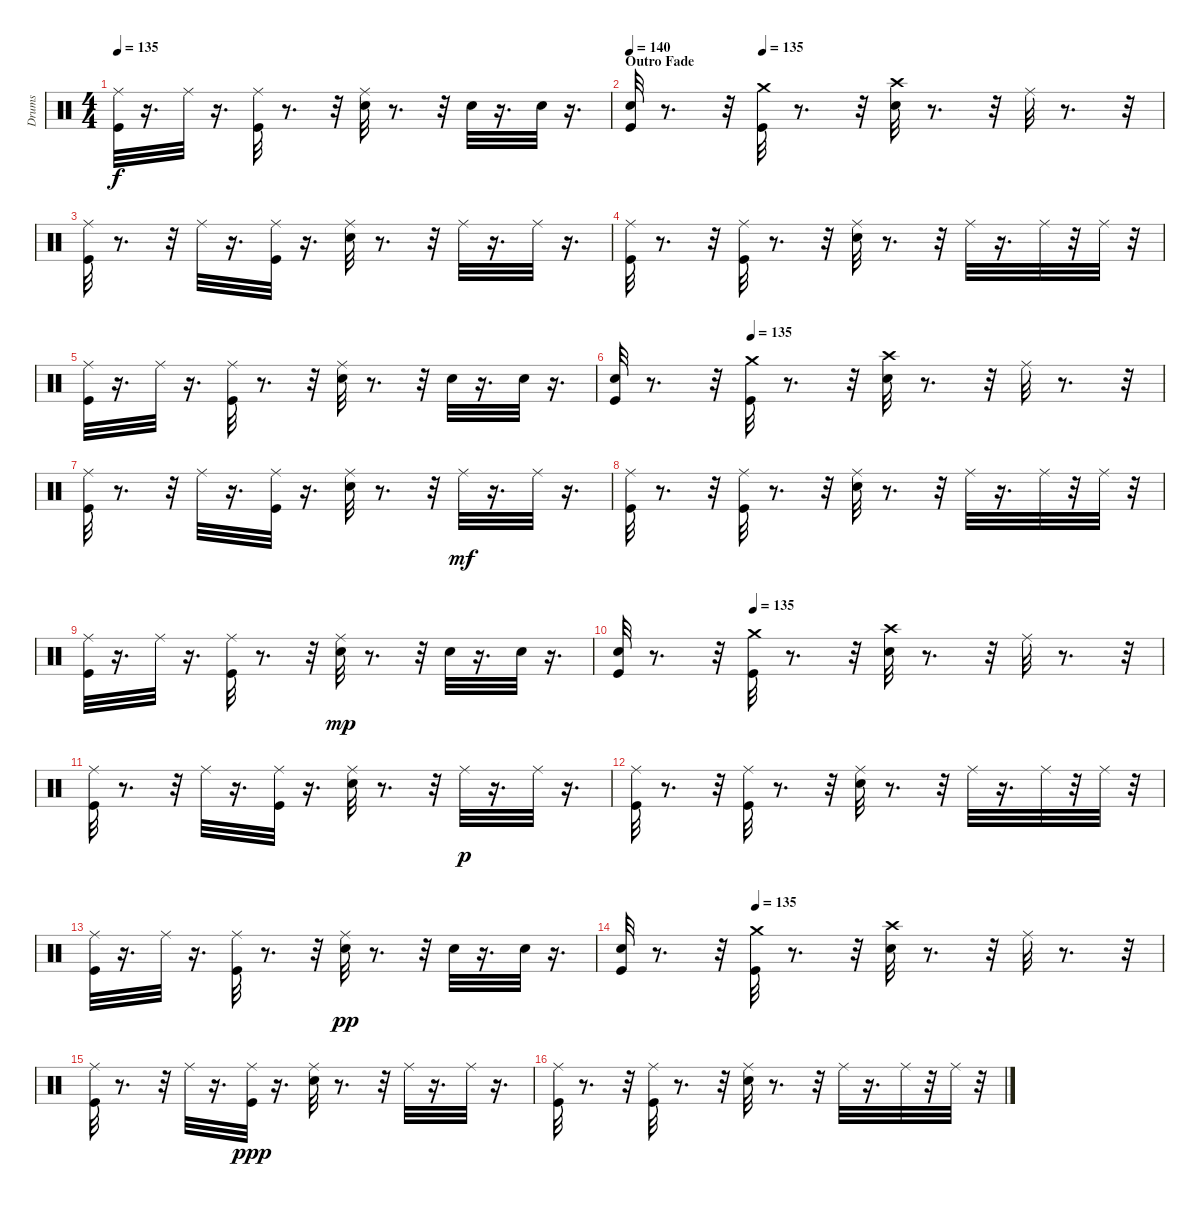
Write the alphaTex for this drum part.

\track ("Drums" "Drums") {instrument percussion}
\staff {score}
\articulation defaults
\ts (4 4)
\tempo 135
\clef neutral
\ks c
("Kick (hit)" "Ride (middle)").32{dy f} r.16{d} "Ride (middle)".32 r.16{d} ("Kick (hit)" "Ride (middle)").32 r.8{d} r.32 ("Snare (hit) 2" "Ride (middle)").32 r.8{d} r.32 "Snare (hit) 2".32 r.16{d} "Snare (hit) 2".32 r.16{d} |
\section ("" "Outro Fade ")
\tempo (135 0.25)
\tempo 140
("Electric Snare (hit)" "Kick (hit)").32 r.8{d} r.32 ("Crash medium (hit)" "Kick (hit)").32 r.8{d} r.32 ("Crash high (hit)" "Snare (hit) 2").32 r.8{d} r.32 "Ride (middle)".32 r.8{d} r.32 |
("Kick (hit)" "Ride (middle)").32 r.8{d} r.32 "Ride (middle)".32 r.16{d} ("Kick (hit)" "Ride (middle)").32 r.16{d} ("Snare (hit) 2" "Ride (middle)").32 r.8{d} r.32 "Ride (middle)".32 r.16{d} "Ride (middle)".32 r.16{d} |
("Ride (middle)" "Kick (hit)").32 r.8{d} r.32 ("Ride (middle)" "Kick (hit)").32 r.8{d} r.32 ("Ride (middle)" "Snare (hit) 2").32 r.8{d} r.32 "Ride (middle)".32 r.16{d} "Ride (middle)".32 r.32 "Ride (middle)".32 r.32 |
("Kick (hit)" "Ride (middle)").32 r.16{d} "Ride (middle)".32 r.16{d} ("Kick (hit)" "Ride (middle)").32 r.8{d} r.32 ("Snare (hit) 2" "Ride (middle)").32 r.8{d} r.32 "Snare (hit) 2".32 r.16{d} "Snare (hit) 2".32 r.16{d} |
\tempo (135 0.25)
("Electric Snare (hit)" "Kick (hit)").32 r.8{d} r.32 ("Crash medium (hit)" "Kick (hit)").32 r.8{d} r.32 ("Crash high (hit)" "Snare (hit) 2").32 r.8{d} r.32 "Ride (middle)".32 r.8{d} r.32 |
("Kick (hit)" "Ride (middle)").32 r.8{d} r.32 "Ride (middle)".32 r.16{d} ("Kick (hit)" "Ride (middle)").32 r.16{d} ("Snare (hit) 2" "Ride (middle)").32 r.8{d} r.32 "Ride (middle)".32{dy mf} r.16{d} "Ride (middle)".32 r.16{d} |
("Ride (middle)" "Kick (hit)").32 r.8{d} r.32 ("Ride (middle)" "Kick (hit)").32 r.8{d} r.32 ("Ride (middle)" "Snare (hit) 2").32 r.8{d} r.32 "Ride (middle)".32 r.16{d} "Ride (middle)".32 r.32 "Ride (middle)".32 r.32 |
("Kick (hit)" "Ride (middle)").32 r.16{d} "Ride (middle)".32 r.16{d} ("Kick (hit)" "Ride (middle)").32 r.8{d} r.32 ("Snare (hit) 2" "Ride (middle)").32{dy mp} r.8{d} r.32 "Snare (hit) 2".32 r.16{d} "Snare (hit) 2".32 r.16{d} |
\tempo (135 0.25)
("Electric Snare (hit)" "Kick (hit)").32 r.8{d} r.32 ("Crash medium (hit)" "Kick (hit)").32 r.8{d} r.32 ("Crash high (hit)" "Snare (hit) 2").32 r.8{d} r.32 "Ride (middle)".32 r.8{d} r.32 |
("Kick (hit)" "Ride (middle)").32 r.8{d} r.32 "Ride (middle)".32 r.16{d} ("Kick (hit)" "Ride (middle)").32 r.16{d} ("Snare (hit) 2" "Ride (middle)").32 r.8{d} r.32 "Ride (middle)".32{dy p} r.16{d} "Ride (middle)".32 r.16{d} |
("Ride (middle)" "Kick (hit)").32 r.8{d} r.32 ("Ride (middle)" "Kick (hit)").32 r.8{d} r.32 ("Ride (middle)" "Snare (hit) 2").32 r.8{d} r.32 "Ride (middle)".32 r.16{d} "Ride (middle)".32 r.32 "Ride (middle)".32 r.32 |
("Kick (hit)" "Ride (middle)").32 r.16{d} "Ride (middle)".32 r.16{d} ("Kick (hit)" "Ride (middle)").32 r.8{d} r.32 ("Snare (hit) 2" "Ride (middle)").32{dy pp} r.8{d} r.32 "Snare (hit) 2".32 r.16{d} "Snare (hit) 2".32 r.16{d} |
\tempo (135 0.25)
("Electric Snare (hit)" "Kick (hit)").32 r.8{d} r.32 ("Crash medium (hit)" "Kick (hit)").32 r.8{d} r.32 ("Crash high (hit)" "Snare (hit) 2").32 r.8{d} r.32 "Ride (middle)".32 r.8{d} r.32 |
("Kick (hit)" "Ride (middle)").32 r.8{d} r.32 "Ride (middle)".32 r.16{d} ("Kick (hit)" "Ride (middle)").32{dy ppp} r.16{d} ("Snare (hit) 2" "Ride (middle)").32 r.8{d} r.32 "Ride (middle)".32 r.16{d} "Ride (middle)".32 r.16{d} |
("Ride (middle)" "Kick (hit)").32 r.8{d} r.32 ("Ride (middle)" "Kick (hit)").32 r.8{d} r.32 ("Ride (middle)" "Snare (hit) 2").32 r.8{d} r.32 "Ride (middle)".32 r.16{d} "Ride (middle)".32 r.32 "Ride (middle)".32 r.32
